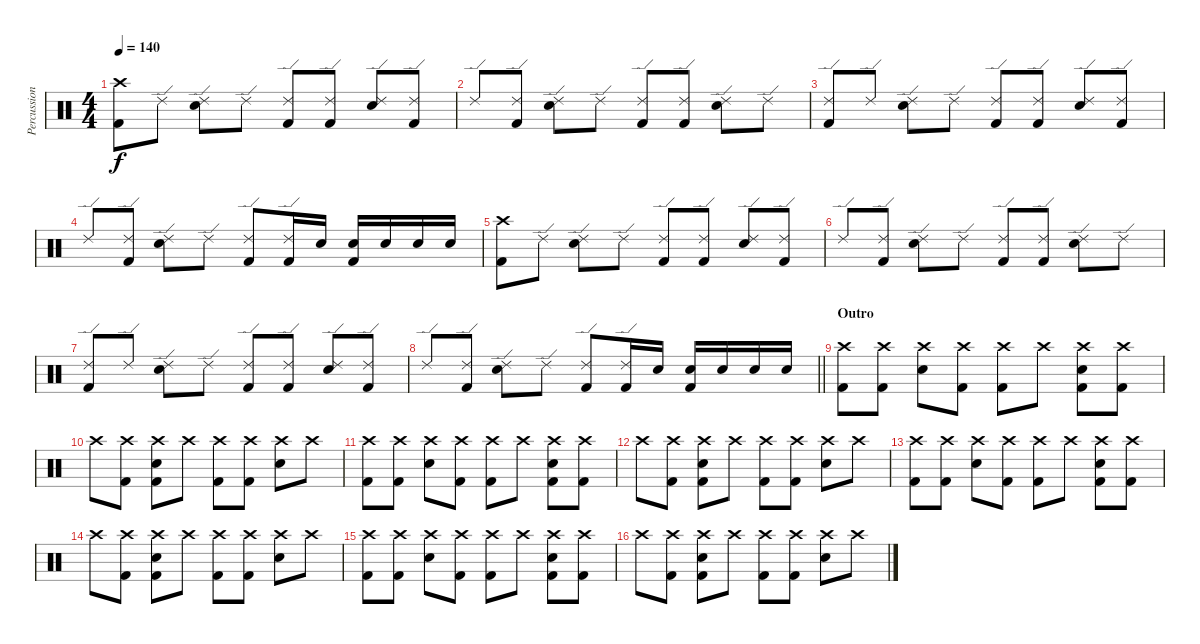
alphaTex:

\track ("Percussion" "Percussion") {instrument percussion}
\staff {score}
\articulation defaults
\ts (4 4)
\tempo 140
\clef neutral
\ks c
("Crash high (hit)" "Kick (hit) 2").8{dy f} "Ride (edge) 2".8 ("Ride (edge) 2" "Electric Snare (hit)").8 "Ride (edge) 2".8 ("Ride (edge) 2" "Kick (hit) 2").8 ("Ride (edge) 2" "Kick (hit) 2").8 ("Ride (edge) 2" "Electric Snare (hit)").8 ("Ride (edge) 2" "Kick (hit) 2").8 |
"Ride (edge) 2".8 ("Ride (edge) 2" "Kick (hit) 2").8 ("Ride (edge) 2" "Electric Snare (hit)").8 "Ride (edge) 2".8 ("Ride (edge) 2" "Kick (hit) 2").8 ("Ride (edge) 2" "Kick (hit) 2").8 ("Ride (edge) 2" "Electric Snare (hit)").8 "Ride (edge) 2".8 |
("Ride (edge) 2" "Kick (hit) 2").8 "Ride (edge) 2".8 ("Ride (edge) 2" "Electric Snare (hit)").8 "Ride (edge) 2".8 ("Ride (edge) 2" "Kick (hit) 2").8 ("Ride (edge) 2" "Kick (hit) 2").8 ("Ride (edge) 2" "Electric Snare (hit)").8 ("Ride (edge) 2" "Kick (hit) 2").8 |
"Ride (edge) 2".8 ("Ride (edge) 2" "Kick (hit) 2").8 ("Ride (edge) 2" "Electric Snare (hit)").8 "Ride (edge) 2".8 ("Ride (edge) 2" "Kick (hit) 2").8 ("Ride (edge) 2" "Kick (hit) 2").16 "Electric Snare (hit)".16 ("Electric Snare (hit)" "Kick (hit) 2").16 "Electric Snare (hit)".16 "Electric Snare (hit)".16 "Electric Snare (hit)".16 |
("Crash high (hit)" "Kick (hit) 2").8 "Ride (edge) 2".8 ("Ride (edge) 2" "Electric Snare (hit)").8 "Ride (edge) 2".8 ("Ride (edge) 2" "Kick (hit) 2").8 ("Ride (edge) 2" "Kick (hit) 2").8 ("Ride (edge) 2" "Electric Snare (hit)").8 ("Ride (edge) 2" "Kick (hit) 2").8 |
"Ride (edge) 2".8 ("Ride (edge) 2" "Kick (hit) 2").8 ("Ride (edge) 2" "Electric Snare (hit)").8 "Ride (edge) 2".8 ("Ride (edge) 2" "Kick (hit) 2").8 ("Ride (edge) 2" "Kick (hit) 2").8 ("Ride (edge) 2" "Electric Snare (hit)").8 "Ride (edge) 2".8 |
("Ride (edge) 2" "Kick (hit) 2").8 "Ride (edge) 2".8 ("Ride (edge) 2" "Electric Snare (hit)").8 "Ride (edge) 2".8 ("Ride (edge) 2" "Kick (hit) 2").8 ("Ride (edge) 2" "Kick (hit) 2").8 ("Ride (edge) 2" "Electric Snare (hit)").8 ("Ride (edge) 2" "Kick (hit) 2").8 |
\barLineRight lightlight "Ride (edge) 2".8
("Ride (edge) 2" "Kick (hit) 2").8 ("Ride (edge) 2" "Electric Snare (hit)").8 "Ride (edge) 2".8 ("Ride (edge) 2" "Kick (hit) 2").8 ("Ride (edge) 2" "Kick (hit) 2").16 "Electric Snare (hit)".16 ("Electric Snare (hit)" "Kick (hit) 2").16 "Electric Snare (hit)".16 "Electric Snare (hit)".16 "Electric Snare (hit)".16 |
\section ("" "Outro")
("Crash high (hit)" "Kick (hit) 2").8 ("Crash high (hit)" "Kick (hit) 2").8 ("Crash high (hit)" "Electric Snare (hit)").8 ("Crash high (hit)" "Kick (hit) 2").8 ("Crash high (hit)" "Kick (hit) 2").8 "Crash high (hit)".8 ("Crash high (hit)" "Electric Snare (hit)" "Kick (hit) 2").8 ("Crash high (hit)" "Kick (hit) 2").8 |
"Crash high (hit)".8 ("Crash high (hit)" "Kick (hit) 2").8 ("Crash high (hit)" "Electric Snare (hit)" "Kick (hit) 2").8 "Crash high (hit)".8 ("Crash high (hit)" "Kick (hit) 2").8 ("Crash high (hit)" "Kick (hit) 2").8 ("Crash high (hit)" "Electric Snare (hit)").8 "Crash high (hit)".8 |
("Crash high (hit)" "Kick (hit) 2").8 ("Crash high (hit)" "Kick (hit) 2").8 ("Crash high (hit)" "Electric Snare (hit)").8 ("Crash high (hit)" "Kick (hit) 2").8 ("Crash high (hit)" "Kick (hit) 2").8 "Crash high (hit)".8 ("Crash high (hit)" "Electric Snare (hit)" "Kick (hit) 2").8 ("Crash high (hit)" "Kick (hit) 2").8 |
"Crash high (hit)".8 ("Crash high (hit)" "Kick (hit) 2").8 ("Crash high (hit)" "Electric Snare (hit)" "Kick (hit) 2").8 "Crash high (hit)".8 ("Crash high (hit)" "Kick (hit) 2").8 ("Crash high (hit)" "Kick (hit) 2").8 ("Crash high (hit)" "Electric Snare (hit)").8 "Crash high (hit)".8 |
("Crash high (hit)" "Kick (hit) 2").8 ("Crash high (hit)" "Kick (hit) 2").8 ("Crash high (hit)" "Electric Snare (hit)").8 ("Crash high (hit)" "Kick (hit) 2").8 ("Crash high (hit)" "Kick (hit) 2").8 "Crash high (hit)".8 ("Crash high (hit)" "Electric Snare (hit)" "Kick (hit) 2").8 ("Crash high (hit)" "Kick (hit) 2").8 |
"Crash high (hit)".8 ("Crash high (hit)" "Kick (hit) 2").8 ("Crash high (hit)" "Electric Snare (hit)" "Kick (hit) 2").8 "Crash high (hit)".8 ("Crash high (hit)" "Kick (hit) 2").8 ("Crash high (hit)" "Kick (hit) 2").8 ("Crash high (hit)" "Electric Snare (hit)").8 "Crash high (hit)".8 |
("Crash high (hit)" "Kick (hit) 2").8 ("Crash high (hit)" "Kick (hit) 2").8 ("Crash high (hit)" "Electric Snare (hit)").8 ("Crash high (hit)" "Kick (hit) 2").8 ("Crash high (hit)" "Kick (hit) 2").8 "Crash high (hit)".8 ("Crash high (hit)" "Electric Snare (hit)" "Kick (hit) 2").8 ("Crash high (hit)" "Kick (hit) 2").8 |
"Crash high (hit)".8 ("Crash high (hit)" "Kick (hit) 2").8 ("Crash high (hit)" "Electric Snare (hit)" "Kick (hit) 2").8 "Crash high (hit)".8 ("Crash high (hit)" "Kick (hit) 2").8 ("Crash high (hit)" "Kick (hit) 2").8 ("Crash high (hit)" "Electric Snare (hit)").8 "Crash high (hit)".8
